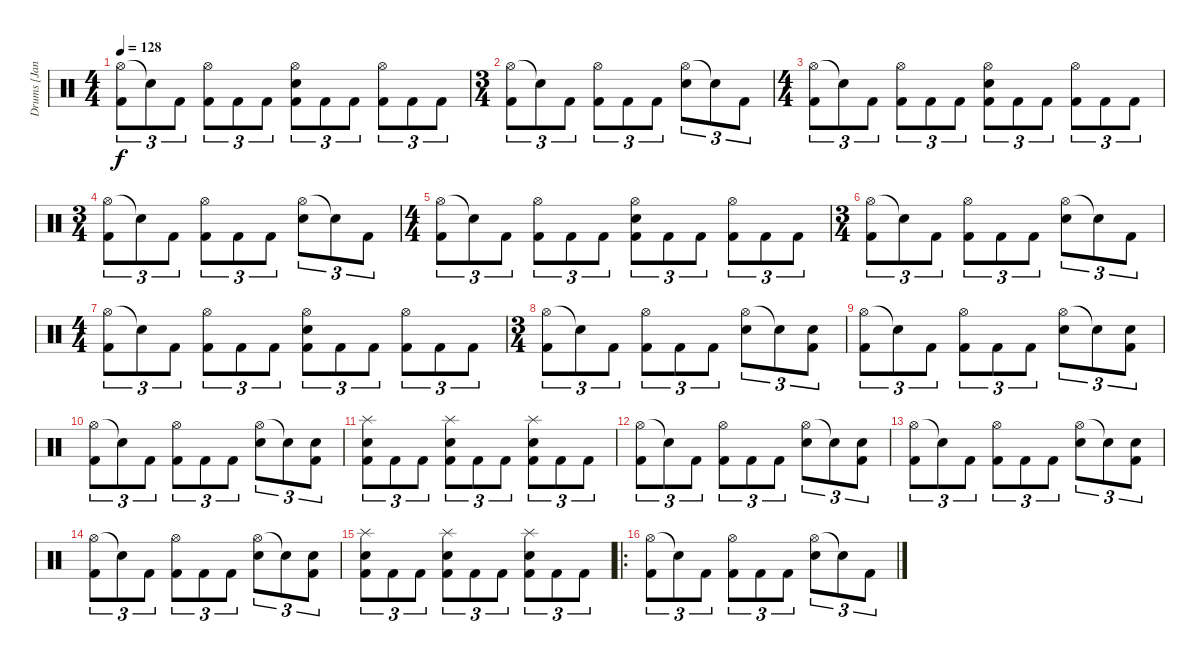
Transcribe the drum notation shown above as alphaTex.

\track ("Drums [Janne Saarenpaa]" "Drums [Jan") {instrument percussion}
\staff {score}
\articulation defaults
\ts (4 4)
\tempo 128
\clef neutral
\ks c
("Hi-Hat (open)" "Kick (hit) 2").8{tu (3 2) dy f} "Snare (hit)"{t}.8{tu (3 2)} "Kick (hit) 2".8{tu (3 2)} ("Hi-Hat (open)" "Kick (hit) 2").8{tu (3 2)} "Kick (hit) 2".8{tu (3 2)} "Kick (hit) 2".8{tu (3 2)} ("Hi-Hat (open)" "Electric Snare (hit)" "Kick (hit) 2").8{tu (3 2)} "Kick (hit) 2".8{tu (3 2)} "Kick (hit) 2".8{tu (3 2)} ("Hi-Hat (open)" "Kick (hit) 2").8{tu (3 2)} "Kick (hit) 2".8{tu (3 2)} "Kick (hit) 2".8{tu (3 2)} |
\ts (3 4)
("Hi-Hat (open)" "Kick (hit) 2").8{tu (3 2)} "Snare (hit)"{t}.8{tu (3 2)} "Kick (hit) 2".8{tu (3 2)} ("Hi-Hat (open)" "Kick (hit) 2").8{tu (3 2)} "Kick (hit) 2".8{tu (3 2)} "Kick (hit) 2".8{tu (3 2)} ("Hi-Hat (open)" "Electric Snare (hit)").8{tu (3 2)} "Snare (hit)"{t}.8{tu (3 2)} "Kick (hit) 2".8{tu (3 2)} |
\ts (4 4)
("Hi-Hat (open)" "Kick (hit) 2").8{tu (3 2)} "Snare (hit)"{t}.8{tu (3 2)} "Kick (hit) 2".8{tu (3 2)} ("Hi-Hat (open)" "Kick (hit) 2").8{tu (3 2)} "Kick (hit) 2".8{tu (3 2)} "Kick (hit) 2".8{tu (3 2)} ("Hi-Hat (open)" "Electric Snare (hit)" "Kick (hit) 2").8{tu (3 2)} "Kick (hit) 2".8{tu (3 2)} "Kick (hit) 2".8{tu (3 2)} ("Hi-Hat (open)" "Kick (hit) 2").8{tu (3 2)} "Kick (hit) 2".8{tu (3 2)} "Kick (hit) 2".8{tu (3 2)} |
\ts (3 4)
("Hi-Hat (open)" "Kick (hit) 2").8{tu (3 2)} "Snare (hit)"{t}.8{tu (3 2)} "Kick (hit) 2".8{tu (3 2)} ("Hi-Hat (open)" "Kick (hit) 2").8{tu (3 2)} "Kick (hit) 2".8{tu (3 2)} "Kick (hit) 2".8{tu (3 2)} ("Hi-Hat (open)" "Electric Snare (hit)").8{tu (3 2)} "Snare (hit)"{t}.8{tu (3 2)} "Kick (hit) 2".8{tu (3 2)} |
\ts (4 4)
("Hi-Hat (open)" "Kick (hit) 2").8{tu (3 2)} "Snare (hit)"{t}.8{tu (3 2)} "Kick (hit) 2".8{tu (3 2)} ("Hi-Hat (open)" "Kick (hit) 2").8{tu (3 2)} "Kick (hit) 2".8{tu (3 2)} "Kick (hit) 2".8{tu (3 2)} ("Hi-Hat (open)" "Electric Snare (hit)" "Kick (hit) 2").8{tu (3 2)} "Kick (hit) 2".8{tu (3 2)} "Kick (hit) 2".8{tu (3 2)} ("Hi-Hat (open)" "Kick (hit) 2").8{tu (3 2)} "Kick (hit) 2".8{tu (3 2)} "Kick (hit) 2".8{tu (3 2)} |
\ts (3 4)
("Hi-Hat (open)" "Kick (hit) 2").8{tu (3 2)} "Snare (hit)"{t}.8{tu (3 2)} "Kick (hit) 2".8{tu (3 2)} ("Hi-Hat (open)" "Kick (hit) 2").8{tu (3 2)} "Kick (hit) 2".8{tu (3 2)} "Kick (hit) 2".8{tu (3 2)} ("Hi-Hat (open)" "Electric Snare (hit)").8{tu (3 2)} "Snare (hit)"{t}.8{tu (3 2)} "Kick (hit) 2".8{tu (3 2)} |
\ts (4 4)
("Hi-Hat (open)" "Kick (hit) 2").8{tu (3 2)} "Snare (hit)"{t}.8{tu (3 2)} "Kick (hit) 2".8{tu (3 2)} ("Hi-Hat (open)" "Kick (hit) 2").8{tu (3 2)} "Kick (hit) 2".8{tu (3 2)} "Kick (hit) 2".8{tu (3 2)} ("Hi-Hat (open)" "Electric Snare (hit)" "Kick (hit) 2").8{tu (3 2)} "Kick (hit) 2".8{tu (3 2)} "Kick (hit) 2".8{tu (3 2)} ("Hi-Hat (open)" "Kick (hit) 2").8{tu (3 2)} "Kick (hit) 2".8{tu (3 2)} "Kick (hit) 2".8{tu (3 2)} |
\ts (3 4)
("Hi-Hat (open)" "Kick (hit) 2").8{tu (3 2)} "Snare (hit)"{t}.8{tu (3 2)} "Kick (hit) 2".8{tu (3 2)} ("Hi-Hat (open)" "Kick (hit) 2").8{tu (3 2)} "Kick (hit) 2".8{tu (3 2)} "Kick (hit) 2".8{tu (3 2)} ("Hi-Hat (open)" "Electric Snare (hit)").8{tu (3 2)} "Snare (hit)"{t}.8{tu (3 2)} ("Electric Snare (hit)" "Kick (hit) 2").8{tu (3 2)} |
("Hi-Hat (open)" "Kick (hit) 2").8{tu (3 2)} "Snare (hit)"{t}.8{tu (3 2)} "Kick (hit) 2".8{tu (3 2)} ("Hi-Hat (open)" "Kick (hit) 2").8{tu (3 2)} "Kick (hit) 2".8{tu (3 2)} "Kick (hit) 2".8{tu (3 2)} ("Hi-Hat (open)" "Electric Snare (hit)").8{tu (3 2)} "Snare (hit)"{t}.8{tu (3 2)} ("Electric Snare (hit)" "Kick (hit) 2").8{tu (3 2)} |
("Hi-Hat (open)" "Kick (hit) 2").8{tu (3 2)} "Snare (hit)"{t}.8{tu (3 2)} "Kick (hit) 2".8{tu (3 2)} ("Hi-Hat (open)" "Kick (hit) 2").8{tu (3 2)} "Kick (hit) 2".8{tu (3 2)} "Kick (hit) 2".8{tu (3 2)} ("Hi-Hat (open)" "Electric Snare (hit)").8{tu (3 2)} "Snare (hit)"{t}.8{tu (3 2)} ("Electric Snare (hit)" "Kick (hit) 2").8{tu (3 2)} |
("Splash (hit)" "Electric Snare (hit)" "Kick (hit) 2").8{tu (3 2)} "Kick (hit) 2".8{tu (3 2)} "Kick (hit) 2".8{tu (3 2)} ("Splash (hit)" "Electric Snare (hit)" "Kick (hit) 2").8{tu (3 2)} "Kick (hit) 2".8{tu (3 2)} "Kick (hit) 2".8{tu (3 2)} ("Splash (hit)" "Electric Snare (hit)" "Kick (hit) 2").8{tu (3 2)} "Kick (hit) 2".8{tu (3 2)} "Kick (hit) 2".8{tu (3 2)} |
("Hi-Hat (open)" "Kick (hit) 2").8{tu (3 2)} "Snare (hit)"{t}.8{tu (3 2)} "Kick (hit) 2".8{tu (3 2)} ("Hi-Hat (open)" "Kick (hit) 2").8{tu (3 2)} "Kick (hit) 2".8{tu (3 2)} "Kick (hit) 2".8{tu (3 2)} ("Hi-Hat (open)" "Electric Snare (hit)").8{tu (3 2)} "Snare (hit)"{t}.8{tu (3 2)} ("Electric Snare (hit)" "Kick (hit) 2").8{tu (3 2)} |
("Hi-Hat (open)" "Kick (hit) 2").8{tu (3 2)} "Snare (hit)"{t}.8{tu (3 2)} "Kick (hit) 2".8{tu (3 2)} ("Hi-Hat (open)" "Kick (hit) 2").8{tu (3 2)} "Kick (hit) 2".8{tu (3 2)} "Kick (hit) 2".8{tu (3 2)} ("Hi-Hat (open)" "Electric Snare (hit)").8{tu (3 2)} "Snare (hit)"{t}.8{tu (3 2)} ("Electric Snare (hit)" "Kick (hit) 2").8{tu (3 2)} |
("Hi-Hat (open)" "Kick (hit) 2").8{tu (3 2)} "Snare (hit)"{t}.8{tu (3 2)} "Kick (hit) 2".8{tu (3 2)} ("Hi-Hat (open)" "Kick (hit) 2").8{tu (3 2)} "Kick (hit) 2".8{tu (3 2)} "Kick (hit) 2".8{tu (3 2)} ("Hi-Hat (open)" "Electric Snare (hit)").8{tu (3 2)} "Snare (hit)"{t}.8{tu (3 2)} ("Electric Snare (hit)" "Kick (hit) 2").8{tu (3 2)} |
("Splash (hit)" "Electric Snare (hit)" "Kick (hit) 2").8{tu (3 2)} "Kick (hit) 2".8{tu (3 2)} "Kick (hit) 2".8{tu (3 2)} ("Splash (hit)" "Electric Snare (hit)" "Kick (hit) 2").8{tu (3 2)} "Kick (hit) 2".8{tu (3 2)} "Kick (hit) 2".8{tu (3 2)} ("Splash (hit)" "Electric Snare (hit)" "Kick (hit) 2").8{tu (3 2)} "Kick (hit) 2".8{tu (3 2)} "Kick (hit) 2".8{tu (3 2)} |
\ro
("Hi-Hat (open)" "Kick (hit) 2").8{tu (3 2)} "Snare (hit)"{t}.8{tu (3 2)} "Kick (hit) 2".8{tu (3 2)} ("Hi-Hat (open)" "Kick (hit) 2").8{tu (3 2)} "Kick (hit) 2".8{tu (3 2)} "Kick (hit) 2".8{tu (3 2)} ("Hi-Hat (open)" "Electric Snare (hit)").8{tu (3 2)} "Snare (hit)"{t}.8{tu (3 2)} "Kick (hit) 2".8{tu (3 2)}
